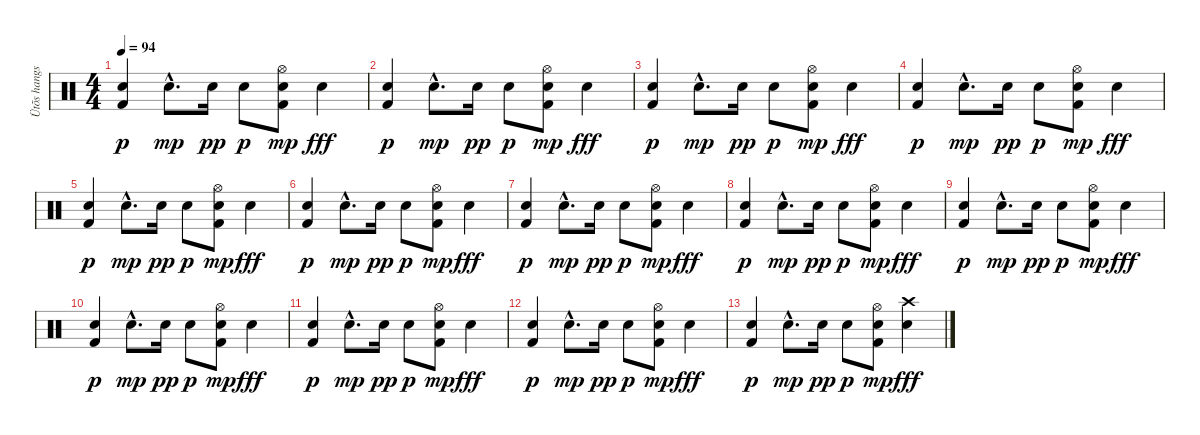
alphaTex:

\track ("Ütõs hangszer" "Ütõs hangs") {instrument percussion}
\staff {score}
\articulation defaults
\ts (4 4)
\tempo 94
\clef neutral
\ks c
("Electric Snare (hit)" "Kick (hit) 2").4{dy p} "Electric Snare (hit)"{hac}.8{d dy mp} "Electric Snare (hit)".16{dy pp} "Electric Snare (hit)".8{dy p} ("Electric Snare (hit)" "Kick (hit) 2" "Hi-Hat (open)").8{dy mp} "Electric Snare (hit)".4{dy fff} |
("Electric Snare (hit)" "Kick (hit) 2").4{dy p} "Electric Snare (hit)"{hac}.8{d dy mp} "Electric Snare (hit)".16{dy pp} "Electric Snare (hit)".8{dy p} ("Electric Snare (hit)" "Kick (hit) 2" "Hi-Hat (open)").8{dy mp} "Electric Snare (hit)".4{dy fff} |
("Electric Snare (hit)" "Kick (hit) 2").4{dy p} "Electric Snare (hit)"{hac}.8{d dy mp} "Electric Snare (hit)".16{dy pp} "Electric Snare (hit)".8{dy p} ("Electric Snare (hit)" "Kick (hit) 2" "Hi-Hat (open)").8{dy mp} "Electric Snare (hit)".4{dy fff} |
("Electric Snare (hit)" "Kick (hit) 2").4{dy p} "Electric Snare (hit)"{hac}.8{d dy mp} "Electric Snare (hit)".16{dy pp} "Electric Snare (hit)".8{dy p} ("Electric Snare (hit)" "Kick (hit) 2" "Hi-Hat (open)").8{dy mp} "Electric Snare (hit)".4{dy fff} |
("Electric Snare (hit)" "Kick (hit) 2").4{dy p} "Electric Snare (hit)"{hac}.8{d dy mp} "Electric Snare (hit)".16{dy pp} "Electric Snare (hit)".8{dy p} ("Electric Snare (hit)" "Kick (hit) 2" "Hi-Hat (open)").8{dy mp} "Electric Snare (hit)".4{dy fff} |
("Electric Snare (hit)" "Kick (hit) 2").4{dy p} "Electric Snare (hit)"{hac}.8{d dy mp} "Electric Snare (hit)".16{dy pp} "Electric Snare (hit)".8{dy p} ("Electric Snare (hit)" "Kick (hit) 2" "Hi-Hat (open)").8{dy mp} "Electric Snare (hit)".4{dy fff} |
("Electric Snare (hit)" "Kick (hit) 2").4{dy p} "Electric Snare (hit)"{hac}.8{d dy mp} "Electric Snare (hit)".16{dy pp} "Electric Snare (hit)".8{dy p} ("Electric Snare (hit)" "Kick (hit) 2" "Hi-Hat (open)").8{dy mp} "Electric Snare (hit)".4{dy fff} |
("Electric Snare (hit)" "Kick (hit) 2").4{dy p} "Electric Snare (hit)"{hac}.8{d dy mp} "Electric Snare (hit)".16{dy pp} "Electric Snare (hit)".8{dy p} ("Electric Snare (hit)" "Kick (hit) 2" "Hi-Hat (open)").8{dy mp} "Electric Snare (hit)".4{dy fff} |
("Electric Snare (hit)" "Kick (hit) 2").4{dy p} "Electric Snare (hit)"{hac}.8{d dy mp} "Electric Snare (hit)".16{dy pp} "Electric Snare (hit)".8{dy p} ("Electric Snare (hit)" "Kick (hit) 2" "Hi-Hat (open)").8{dy mp} "Electric Snare (hit)".4{dy fff} |
("Electric Snare (hit)" "Kick (hit) 2").4{dy p} "Electric Snare (hit)"{hac}.8{d dy mp} "Electric Snare (hit)".16{dy pp} "Electric Snare (hit)".8{dy p} ("Electric Snare (hit)" "Kick (hit) 2" "Hi-Hat (open)").8{dy mp} "Electric Snare (hit)".4{dy fff} |
("Electric Snare (hit)" "Kick (hit) 2").4{dy p} "Electric Snare (hit)"{hac}.8{d dy mp} "Electric Snare (hit)".16{dy pp} "Electric Snare (hit)".8{dy p} ("Electric Snare (hit)" "Kick (hit) 2" "Hi-Hat (open)").8{dy mp} "Electric Snare (hit)".4{dy fff} |
("Electric Snare (hit)" "Kick (hit) 2").4{dy p} "Electric Snare (hit)"{hac}.8{d dy mp} "Electric Snare (hit)".16{dy pp} "Electric Snare (hit)".8{dy p} ("Electric Snare (hit)" "Kick (hit) 2" "Hi-Hat (open)").8{dy mp} "Electric Snare (hit)".4{dy fff} |
("Electric Snare (hit)" "Kick (hit) 2").4{dy p} "Electric Snare (hit)"{hac}.8{d dy mp} "Electric Snare (hit)".16{dy pp} "Electric Snare (hit)".8{dy p} ("Electric Snare (hit)" "Kick (hit) 2" "Hi-Hat (open)").8{dy mp} ("Electric Snare (hit)" "Crash high (hit)").4{dy fff}
